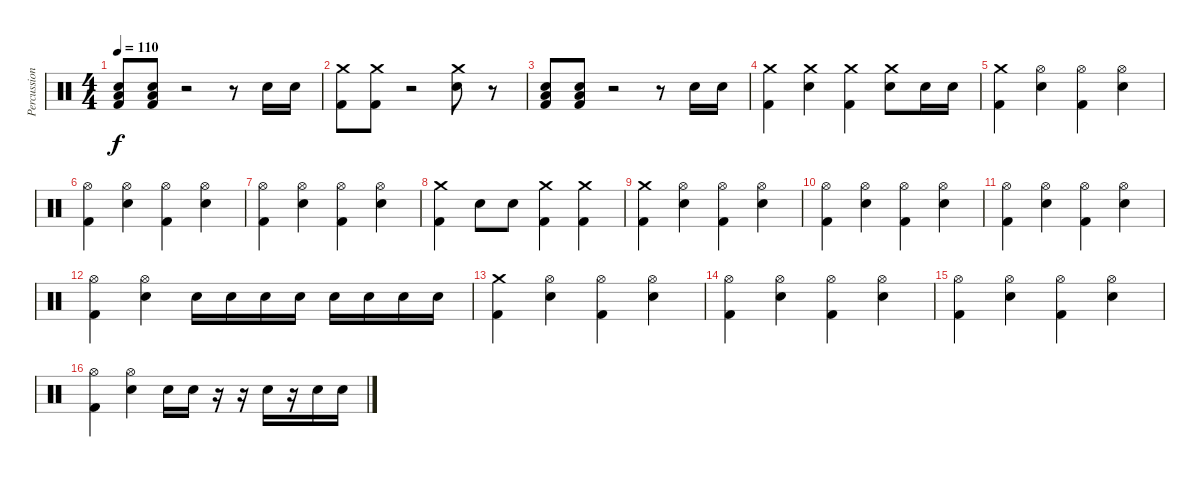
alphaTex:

\track ("Percussion" "Percussion") {instrument percussion}
\staff {score}
\articulation defaults
\ts (4 4)
\tempo 110
\clef neutral
\ks c
("Low Floor Tom (hit)" "Snare (hit) 2" "Kick (hit) 2").8{dy f} ("Low Floor Tom (hit)" "Snare (hit) 2" "Kick (hit) 2").8 r.2 r.8 "Snare (hit) 2".16 "Snare (hit) 2".16 |
("Crash medium (hit)" "Kick (hit) 2").8 ("Crash medium (hit)" "Kick (hit) 2").8 r.2 ("Crash medium (hit)" "Snare (hit) 2").8 r.8 |
("Low Floor Tom (hit)" "Snare (hit) 2" "Kick (hit) 2").8 ("Low Floor Tom (hit)" "Snare (hit) 2" "Kick (hit) 2").8 r.2 r.8 "Snare (hit) 2".16 "Snare (hit) 2".16 |
("Crash medium (hit)" "Kick (hit) 2").4 ("Crash medium (hit)" "Snare (hit) 2").4 ("Crash medium (hit)" "Kick (hit) 2").4 ("Crash medium (hit)" "Snare (hit) 2").8 "Snare (hit) 2".16 "Snare (hit) 2".16 |
("Crash medium (hit)" "Kick (hit) 2").4 ("Hi-Hat (open)" "Snare (hit) 2").4 ("Hi-Hat (open)" "Kick (hit) 2").4 ("Hi-Hat (open)" "Snare (hit) 2").4 |
("Hi-Hat (open)" "Kick (hit) 2").4 ("Hi-Hat (open)" "Snare (hit) 2").4 ("Hi-Hat (open)" "Kick (hit) 2").4 ("Hi-Hat (open)" "Snare (hit) 2").4 |
("Hi-Hat (open)" "Kick (hit) 2").4 ("Hi-Hat (open)" "Snare (hit) 2").4 ("Hi-Hat (open)" "Kick (hit) 2").4 ("Hi-Hat (open)" "Snare (hit) 2").4 |
("Crash medium (hit)" "Kick (hit) 2").4 "Snare (hit) 2".8 "Snare (hit) 2".8 ("Crash medium (hit)" "Kick (hit) 2").4 ("Crash medium (hit)" "Kick (hit) 2").4 |
("Crash medium (hit)" "Kick (hit) 2").4 ("Hi-Hat (open)" "Snare (hit) 2").4 ("Hi-Hat (open)" "Kick (hit) 2").4 ("Hi-Hat (open)" "Snare (hit) 2").4 |
("Hi-Hat (open)" "Kick (hit) 2").4 ("Hi-Hat (open)" "Snare (hit) 2").4 ("Hi-Hat (open)" "Kick (hit) 2").4 ("Hi-Hat (open)" "Snare (hit) 2").4 |
("Hi-Hat (open)" "Kick (hit) 2").4 ("Hi-Hat (open)" "Snare (hit) 2").4 ("Hi-Hat (open)" "Kick (hit) 2").4 ("Hi-Hat (open)" "Snare (hit) 2").4 |
("Hi-Hat (open)" "Kick (hit) 2").4 ("Hi-Hat (open)" "Snare (hit) 2").4 "Snare (hit) 2".16 "Snare (hit) 2".16 "Snare (hit) 2".16 "Snare (hit) 2".16 "Snare (hit) 2".16 "Snare (hit) 2".16 "Snare (hit) 2".16 "Snare (hit) 2".16 |
("Crash medium (hit)" "Kick (hit) 2").4 ("Hi-Hat (open)" "Snare (hit) 2").4 ("Hi-Hat (open)" "Kick (hit) 2").4 ("Hi-Hat (open)" "Snare (hit) 2").4 |
("Hi-Hat (open)" "Kick (hit) 2").4 ("Hi-Hat (open)" "Snare (hit) 2").4 ("Hi-Hat (open)" "Kick (hit) 2").4 ("Hi-Hat (open)" "Snare (hit) 2").4 |
("Hi-Hat (open)" "Kick (hit) 2").4 ("Hi-Hat (open)" "Snare (hit) 2").4 ("Hi-Hat (open)" "Kick (hit) 2").4 ("Hi-Hat (open)" "Snare (hit) 2").4 |
("Hi-Hat (open)" "Kick (hit) 2").4 ("Hi-Hat (open)" "Snare (hit) 2").4 "Snare (hit) 2".16 "Snare (hit) 2".16 r.16 r.16 "Snare (hit) 2".16 r.16 "Snare (hit) 2".16 "Snare (hit) 2".16
